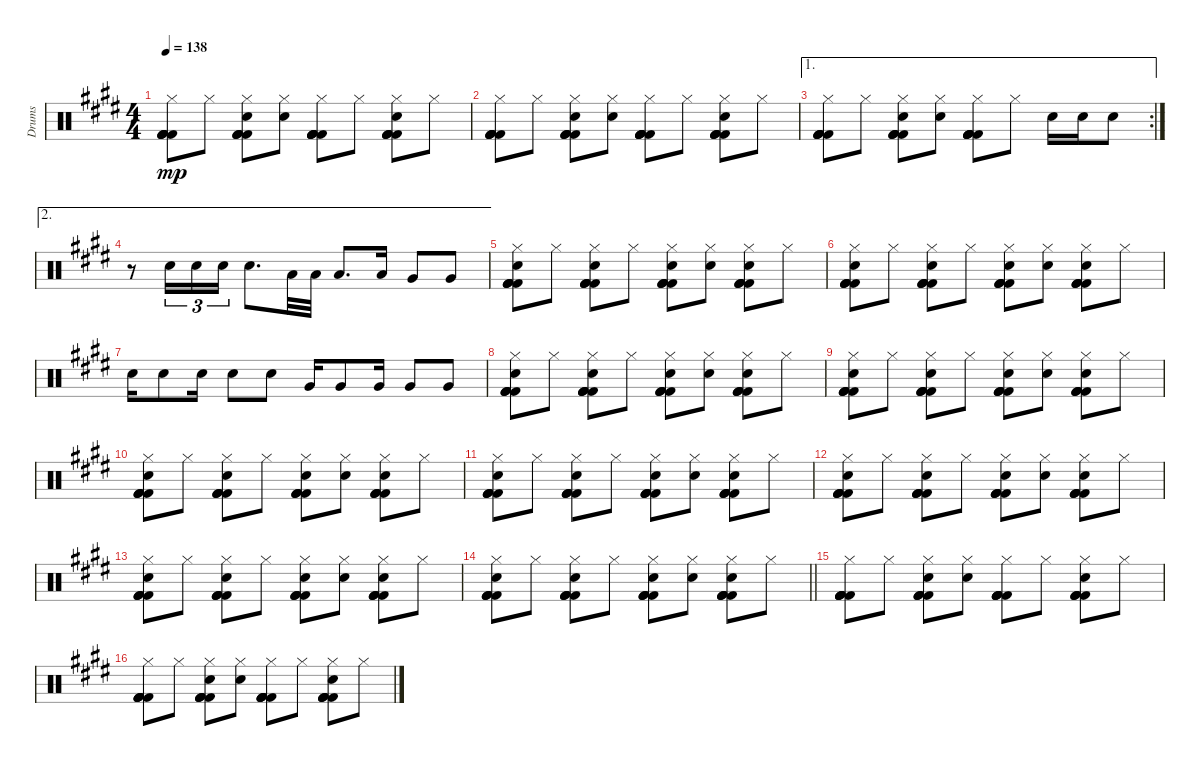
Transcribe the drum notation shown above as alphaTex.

\track ("Drums" "Drums") {instrument percussion}
\staff {score}
\articulation defaults
\ts (4 4)
\tempo 138
\clef neutral
\ks e
("Hi-Hat (closed)" "Kick (hit) 2" "Kick (hit) 2" "Kick (hit) 2" "Kick (hit) 2" "Kick (hit) 2").8{dy mp} "Hi-Hat (closed)".8 ("Hi-Hat (closed)" "Snare (hit) 2" "Kick (hit) 2" "Kick (hit) 2" "Kick (hit) 2" "Kick (hit) 2").8 ("Hi-Hat (closed)" "Snare (hit) 2").8 ("Hi-Hat (closed)" "Kick (hit) 2" "Kick (hit) 2" "Kick (hit) 2" "Kick (hit) 2" "Kick (hit) 2").8 "Hi-Hat (closed)".8 ("Hi-Hat (closed)" "Snare (hit) 2" "Kick (hit) 2" "Kick (hit) 2" "Kick (hit) 2" "Kick (hit) 2").8 "Hi-Hat (closed)".8 |
("Hi-Hat (closed)" "Kick (hit) 2" "Kick (hit) 2" "Kick (hit) 2" "Kick (hit) 2" "Kick (hit) 2").8 "Hi-Hat (closed)".8 ("Hi-Hat (closed)" "Snare (hit) 2" "Kick (hit) 2" "Kick (hit) 2" "Kick (hit) 2" "Kick (hit) 2").8 ("Hi-Hat (closed)" "Snare (hit) 2").8 ("Hi-Hat (closed)" "Kick (hit) 2" "Kick (hit) 2" "Kick (hit) 2" "Kick (hit) 2" "Kick (hit) 2").8 "Hi-Hat (closed)".8 ("Hi-Hat (closed)" "Snare (hit) 2" "Kick (hit) 2" "Kick (hit) 2" "Kick (hit) 2" "Kick (hit) 2").8 "Hi-Hat (closed)".8 |
\ae 1
\rc 2
("Hi-Hat (closed)" "Kick (hit) 2" "Kick (hit) 2" "Kick (hit) 2" "Kick (hit) 2" "Kick (hit) 2").8 "Hi-Hat (closed)".8 ("Hi-Hat (closed)" "Snare (hit) 2" "Kick (hit) 2" "Kick (hit) 2" "Kick (hit) 2" "Kick (hit) 2").8 ("Hi-Hat (closed)" "Snare (hit) 2").8 ("Hi-Hat (closed)" "Kick (hit) 2" "Kick (hit) 2" "Kick (hit) 2" "Kick (hit) 2" "Kick (hit) 2").8 "Hi-Hat (closed)".8 "Snare (hit) 2".16 "Snare (hit) 2".16 "Snare (hit) 2".8 |
\ae 2
r.8 "Snare (hit) 2".16{tu (3 2)} "Snare (hit) 2".16{tu (3 2)} "Snare (hit) 2".16{tu (3 2)} "Snare (hit) 2".8{d} "Low Tom (hit)".32 "Low Tom (hit)".32 "Low Tom (hit)".8{d} "Low Tom (hit)".16 "Very Low Tom (hit)".8 "Very Low Tom (hit)".8 |
("Hi-Hat (closed)" "Snare (hit) 2" "Kick (hit) 2" "Kick (hit) 2" "Kick (hit) 2" "Kick (hit) 2").8 "Hi-Hat (closed)".8 ("Hi-Hat (closed)" "Snare (hit) 2" "Kick (hit) 2" "Kick (hit) 2" "Kick (hit) 2" "Kick (hit) 2").8 "Hi-Hat (closed)".8 ("Hi-Hat (closed)" "Snare (hit) 2" "Kick (hit) 2" "Kick (hit) 2" "Kick (hit) 2" "Kick (hit) 2").8 ("Hi-Hat (closed)" "Snare (hit) 2").8 ("Hi-Hat (closed)" "Snare (hit) 2" "Kick (hit) 2" "Kick (hit) 2" "Kick (hit) 2" "Kick (hit) 2").8 "Hi-Hat (closed)".8 |
("Hi-Hat (closed)" "Snare (hit) 2" "Kick (hit) 2" "Kick (hit) 2" "Kick (hit) 2" "Kick (hit) 2").8 "Hi-Hat (closed)".8 ("Hi-Hat (closed)" "Snare (hit) 2" "Kick (hit) 2" "Kick (hit) 2" "Kick (hit) 2" "Kick (hit) 2").8 "Hi-Hat (closed)".8 ("Hi-Hat (closed)" "Snare (hit) 2" "Kick (hit) 2" "Kick (hit) 2" "Kick (hit) 2" "Kick (hit) 2").8 ("Hi-Hat (closed)" "Snare (hit) 2").8 ("Hi-Hat (closed)" "Snare (hit) 2" "Kick (hit) 2" "Kick (hit) 2" "Kick (hit) 2" "Kick (hit) 2").8 "Hi-Hat (closed)".8 |
"Snare (hit) 2".16 "Snare (hit) 2".8 "Snare (hit) 2".16 "Snare (hit) 2".8 "Snare (hit) 2".8 "Very Low Tom (hit)".16 "Very Low Tom (hit)".8 "Very Low Tom (hit)".16 "Very Low Tom (hit)".8 "Very Low Tom (hit)".8 |
("Hi-Hat (closed)" "Snare (hit) 2" "Kick (hit) 2" "Kick (hit) 2" "Kick (hit) 2" "Kick (hit) 2").8 "Hi-Hat (closed)".8 ("Hi-Hat (closed)" "Snare (hit) 2" "Kick (hit) 2" "Kick (hit) 2" "Kick (hit) 2" "Kick (hit) 2").8 "Hi-Hat (closed)".8 ("Hi-Hat (closed)" "Snare (hit) 2" "Kick (hit) 2" "Kick (hit) 2" "Kick (hit) 2" "Kick (hit) 2").8 ("Hi-Hat (closed)" "Snare (hit) 2").8 ("Hi-Hat (closed)" "Snare (hit) 2" "Kick (hit) 2" "Kick (hit) 2" "Kick (hit) 2" "Kick (hit) 2").8 "Hi-Hat (closed)".8 |
("Hi-Hat (closed)" "Snare (hit) 2" "Kick (hit) 2" "Kick (hit) 2" "Kick (hit) 2" "Kick (hit) 2").8 "Hi-Hat (closed)".8 ("Hi-Hat (closed)" "Snare (hit) 2" "Kick (hit) 2" "Kick (hit) 2" "Kick (hit) 2" "Kick (hit) 2").8 "Hi-Hat (closed)".8 ("Hi-Hat (closed)" "Snare (hit) 2" "Kick (hit) 2" "Kick (hit) 2" "Kick (hit) 2" "Kick (hit) 2").8 ("Hi-Hat (closed)" "Snare (hit) 2").8 ("Hi-Hat (closed)" "Snare (hit) 2" "Kick (hit) 2" "Kick (hit) 2" "Kick (hit) 2" "Kick (hit) 2").8 "Hi-Hat (closed)".8 |
("Hi-Hat (closed)" "Snare (hit) 2" "Kick (hit) 2" "Kick (hit) 2" "Kick (hit) 2" "Kick (hit) 2").8 "Hi-Hat (closed)".8 ("Hi-Hat (closed)" "Snare (hit) 2" "Kick (hit) 2" "Kick (hit) 2" "Kick (hit) 2" "Kick (hit) 2").8 "Hi-Hat (closed)".8 ("Hi-Hat (closed)" "Snare (hit) 2" "Kick (hit) 2" "Kick (hit) 2" "Kick (hit) 2" "Kick (hit) 2").8 ("Hi-Hat (closed)" "Snare (hit) 2").8 ("Hi-Hat (closed)" "Snare (hit) 2" "Kick (hit) 2" "Kick (hit) 2" "Kick (hit) 2" "Kick (hit) 2").8 "Hi-Hat (closed)".8 |
("Hi-Hat (closed)" "Snare (hit) 2" "Kick (hit) 2" "Kick (hit) 2" "Kick (hit) 2" "Kick (hit) 2").8 "Hi-Hat (closed)".8 ("Hi-Hat (closed)" "Snare (hit) 2" "Kick (hit) 2" "Kick (hit) 2" "Kick (hit) 2" "Kick (hit) 2").8 "Hi-Hat (closed)".8 ("Hi-Hat (closed)" "Snare (hit) 2" "Kick (hit) 2" "Kick (hit) 2" "Kick (hit) 2" "Kick (hit) 2").8 ("Hi-Hat (closed)" "Snare (hit) 2").8 ("Hi-Hat (closed)" "Snare (hit) 2" "Kick (hit) 2" "Kick (hit) 2" "Kick (hit) 2" "Kick (hit) 2").8 "Hi-Hat (closed)".8 |
("Hi-Hat (closed)" "Snare (hit) 2" "Kick (hit) 2" "Kick (hit) 2" "Kick (hit) 2" "Kick (hit) 2").8 "Hi-Hat (closed)".8 ("Hi-Hat (closed)" "Snare (hit) 2" "Kick (hit) 2" "Kick (hit) 2" "Kick (hit) 2" "Kick (hit) 2").8 "Hi-Hat (closed)".8 ("Hi-Hat (closed)" "Snare (hit) 2" "Kick (hit) 2" "Kick (hit) 2" "Kick (hit) 2" "Kick (hit) 2").8 ("Hi-Hat (closed)" "Snare (hit) 2").8 ("Hi-Hat (closed)" "Snare (hit) 2" "Kick (hit) 2" "Kick (hit) 2" "Kick (hit) 2" "Kick (hit) 2").8 "Hi-Hat (closed)".8 |
("Hi-Hat (closed)" "Snare (hit) 2" "Kick (hit) 2" "Kick (hit) 2" "Kick (hit) 2" "Kick (hit) 2").8 "Hi-Hat (closed)".8 ("Hi-Hat (closed)" "Snare (hit) 2" "Kick (hit) 2" "Kick (hit) 2" "Kick (hit) 2" "Kick (hit) 2").8 "Hi-Hat (closed)".8 ("Hi-Hat (closed)" "Snare (hit) 2" "Kick (hit) 2" "Kick (hit) 2" "Kick (hit) 2" "Kick (hit) 2").8 ("Hi-Hat (closed)" "Snare (hit) 2").8 ("Hi-Hat (closed)" "Snare (hit) 2" "Kick (hit) 2" "Kick (hit) 2" "Kick (hit) 2" "Kick (hit) 2").8 "Hi-Hat (closed)".8 |
\barLineRight lightlight
("Hi-Hat (closed)" "Snare (hit) 2" "Kick (hit) 2" "Kick (hit) 2" "Kick (hit) 2" "Kick (hit) 2").8 "Hi-Hat (closed)".8 ("Hi-Hat (closed)" "Snare (hit) 2" "Kick (hit) 2" "Kick (hit) 2" "Kick (hit) 2" "Kick (hit) 2").8 "Hi-Hat (closed)".8 ("Hi-Hat (closed)" "Snare (hit) 2" "Kick (hit) 2" "Kick (hit) 2" "Kick (hit) 2" "Kick (hit) 2").8 ("Hi-Hat (closed)" "Snare (hit) 2").8 ("Hi-Hat (closed)" "Snare (hit) 2" "Kick (hit) 2" "Kick (hit) 2" "Kick (hit) 2" "Kick (hit) 2").8 "Hi-Hat (closed)".8 |
("Hi-Hat (closed)" "Kick (hit) 2" "Kick (hit) 2" "Kick (hit) 2" "Kick (hit) 2" "Kick (hit) 2").8 "Hi-Hat (closed)".8 ("Hi-Hat (closed)" "Snare (hit) 2" "Kick (hit) 2" "Kick (hit) 2" "Kick (hit) 2" "Kick (hit) 2").8 ("Hi-Hat (closed)" "Snare (hit) 2").8 ("Hi-Hat (closed)" "Kick (hit) 2" "Kick (hit) 2" "Kick (hit) 2" "Kick (hit) 2" "Kick (hit) 2").8 "Hi-Hat (closed)".8 ("Hi-Hat (closed)" "Snare (hit) 2" "Kick (hit) 2" "Kick (hit) 2" "Kick (hit) 2" "Kick (hit) 2").8 "Hi-Hat (closed)".8 |
("Hi-Hat (closed)" "Kick (hit) 2" "Kick (hit) 2" "Kick (hit) 2" "Kick (hit) 2" "Kick (hit) 2").8 "Hi-Hat (closed)".8 ("Hi-Hat (closed)" "Snare (hit) 2" "Kick (hit) 2" "Kick (hit) 2" "Kick (hit) 2" "Kick (hit) 2").8 ("Hi-Hat (closed)" "Snare (hit) 2").8 ("Hi-Hat (closed)" "Kick (hit) 2" "Kick (hit) 2" "Kick (hit) 2" "Kick (hit) 2" "Kick (hit) 2").8 "Hi-Hat (closed)".8 ("Hi-Hat (closed)" "Snare (hit) 2" "Kick (hit) 2" "Kick (hit) 2" "Kick (hit) 2" "Kick (hit) 2").8 "Hi-Hat (closed)".8
